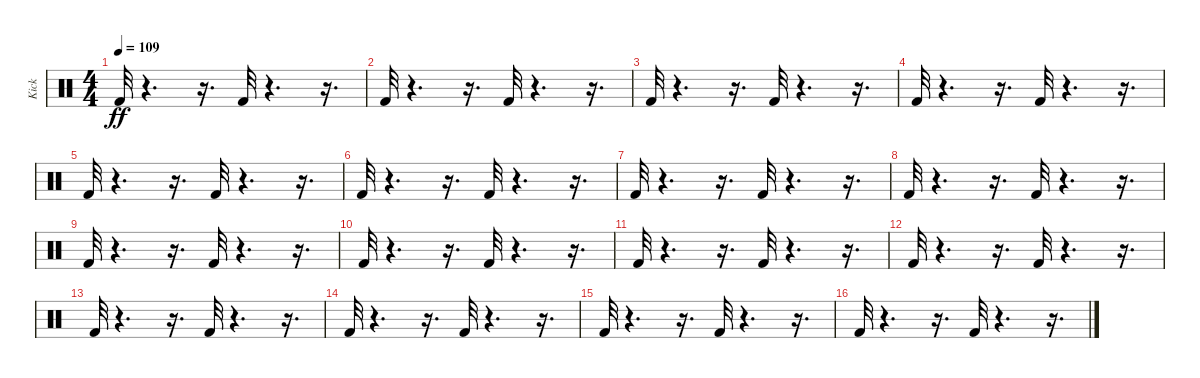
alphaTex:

\track ("Kick" "Kick") {instrument percussion}
\staff {score}
\articulation defaults
\ts (4 4)
\tempo 109
\clef neutral
\ks c "Kick (hit) 2".32{dy ff}
r.4{d} r.16{d} "Kick (hit) 2".32 r.4{d} r.16{d} |
"Kick (hit) 2".32 r.4{d} r.16{d} "Kick (hit) 2".32 r.4{d} r.16{d} |
"Kick (hit) 2".32 r.4{d} r.16{d} "Kick (hit) 2".32 r.4{d} r.16{d} |
"Kick (hit) 2".32 r.4{d} r.16{d} "Kick (hit) 2".32 r.4{d} r.16{d} |
"Kick (hit) 2".32 r.4{d} r.16{d} "Kick (hit) 2".32 r.4{d} r.16{d} |
"Kick (hit) 2".32 r.4{d} r.16{d} "Kick (hit) 2".32 r.4{d} r.16{d} |
"Kick (hit) 2".32 r.4{d} r.16{d} "Kick (hit) 2".32 r.4{d} r.16{d} |
"Kick (hit) 2".32 r.4{d} r.16{d} "Kick (hit) 2".32 r.4{d} r.16{d} |
"Kick (hit) 2".32 r.4{d} r.16{d} "Kick (hit) 2".32 r.4{d} r.16{d} |
"Kick (hit) 2".32 r.4{d} r.16{d} "Kick (hit) 2".32 r.4{d} r.16{d} |
"Kick (hit) 2".32 r.4{d} r.16{d} "Kick (hit) 2".32 r.4{d} r.16{d} |
"Kick (hit) 2".32 r.4{d} r.16{d} "Kick (hit) 2".32 r.4{d} r.16{d} |
"Kick (hit) 2".32 r.4{d} r.16{d} "Kick (hit) 2".32 r.4{d} r.16{d} |
"Kick (hit) 2".32 r.4{d} r.16{d} "Kick (hit) 2".32 r.4{d} r.16{d} |
"Kick (hit) 2".32 r.4{d} r.16{d} "Kick (hit) 2".32 r.4{d} r.16{d} |
"Kick (hit) 2".32 r.4{d} r.16{d} "Kick (hit) 2".32 r.4{d} r.16{d}
